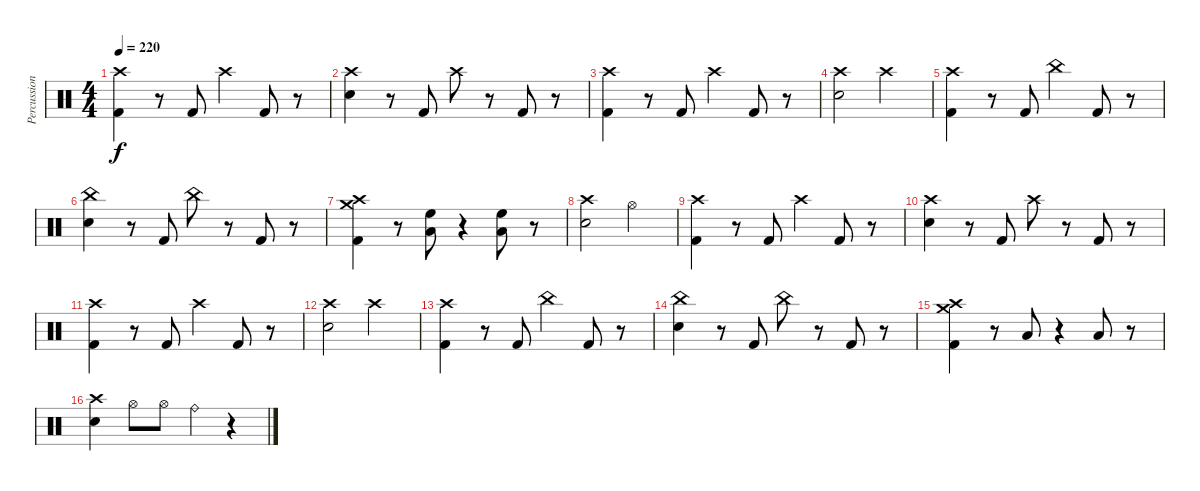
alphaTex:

\track ("Percussion" "Percussion") {instrument percussion}
\staff {score}
\articulation defaults
\ts (4 4)
\tempo 220
\clef neutral
\ks c
("Crash high (hit)" "Kick (hit) 2").4{dy f} r.8 "Kick (hit) 2".8 "Crash high (hit)".4 "Kick (hit) 2".8 r.8 |
("Crash high (hit)" "Snare (hit) 2").4 r.8 "Kick (hit) 2".8 "Crash high (hit)".8 r.8 "Kick (hit) 2".8 r.8 |
("Crash high (hit)" "Kick (hit) 2").4 r.8 "Kick (hit) 2".8 "Crash high (hit)".4 "Kick (hit) 2".8 r.8 |
("Crash high (hit)" "Snare (hit) 2").2 "Crash high (hit)".2 |
("Crash high (hit)" "Kick (hit) 2").4 r.8 "Kick (hit) 2".8 "China (hit)".4 "Kick (hit) 2".8 r.8 |
("China (hit)" "Snare (hit) 2").4 r.8 "Kick (hit) 2".8 "China (hit)".8 r.8 "Kick (hit) 2".8 r.8 |
("Crash medium (hit)" "Crash high (hit)" "Kick (hit) 2").4 r.8 ("High Floor Tom (hit)" "Low Floor Tom (hit)").8 r.4 ("High Floor Tom (hit)" "Low Floor Tom (hit)").8 r.8 |
("Crash high (hit)" "Snare (hit) 2").2 "Hi-Hat (open)".2 |
("Crash high (hit)" "Kick (hit) 2").4 r.8 "Kick (hit) 2".8 "Crash high (hit)".4 "Kick (hit) 2".8 r.8 |
("Crash high (hit)" "Snare (hit) 2").4 r.8 "Kick (hit) 2".8 "Crash high (hit)".8 r.8 "Kick (hit) 2".8 r.8 |
("Crash high (hit)" "Kick (hit) 2").4 r.8 "Kick (hit) 2".8 "Crash high (hit)".4 "Kick (hit) 2".8 r.8 |
("Crash high (hit)" "Snare (hit) 2").2 "Crash high (hit)".2 |
("Crash high (hit)" "Kick (hit) 2").4 r.8 "Kick (hit) 2".8 "China (hit)".4 "Kick (hit) 2".8 r.8 |
("China (hit)" "Snare (hit) 2").4 r.8 "Kick (hit) 2".8 "China (hit)".8 r.8 "Kick (hit) 2".8 r.8 |
("Crash medium (hit)" "Crash high (hit)" "Kick (hit) 2").4 r.8 "Low Floor Tom (hit)".8 r.4 "Low Floor Tom (hit)".8 r.8 |
("Crash high (hit)" "Snare (hit) 2").4 "Hi-Hat (open)".8 "Hi-Hat (open)".8 "Ride (bell)".4 r.4
